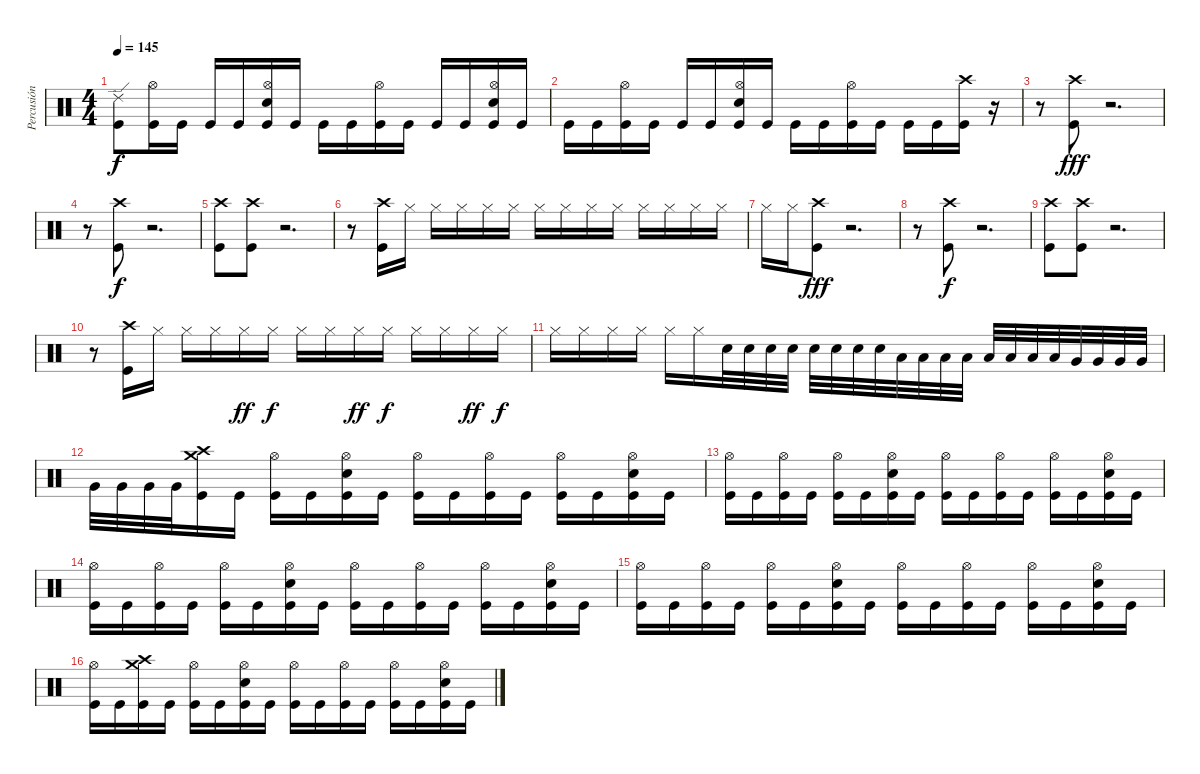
\track ("Percusión" "Percusión") {instrument percussion}
\staff {score}
\articulation defaults
\ts (4 4)
\tempo 145
\clef neutral
\ks c
("Ride (edge) 2" "Kick (hit)").8{dy f} ("Hi-Hat (open)" "Kick (hit)").16 "Kick (hit)".16 "Kick (hit)".16 "Kick (hit)".16 ("Hi-Hat (open)" "Snare (hit) 2" "Kick (hit)").16 "Kick (hit)".16 "Kick (hit)".16 "Kick (hit)".16 ("Hi-Hat (open)" "Kick (hit)").16 "Kick (hit)".16 "Kick (hit)".16 "Kick (hit)".16 ("Hi-Hat (open)" "Snare (hit) 2" "Kick (hit)").16 "Kick (hit)".16 |
"Kick (hit)".16 "Kick (hit)".16 ("Hi-Hat (open)" "Kick (hit)").16 "Kick (hit)".16 "Kick (hit)".16 "Kick (hit)".16 ("Hi-Hat (open)" "Snare (hit) 2" "Kick (hit)").16 "Kick (hit)".16 "Kick (hit)".16 "Kick (hit)".16 ("Hi-Hat (open)" "Kick (hit)").16 "Kick (hit)".16 "Kick (hit)".16 "Kick (hit)".16 ("Crash high (hit)" "Kick (hit)").16 r.16 |
r.8 ("Crash high (hit)" "Kick (hit)").8{dy fff} r.2{d} |
r.8 ("Crash high (hit)" "Kick (hit)").8{dy f} r.2{d} |
("Crash high (hit)" "Kick (hit)").8 ("Crash high (hit)" "Kick (hit)").8 r.2{d} |
r.8 ("Crash high (hit)" "Kick (hit)").16 "Hi-Hat (closed)".16 "Hi-Hat (closed)".16 "Hi-Hat (closed)".16 "Hi-Hat (closed)".16 "Hi-Hat (closed)".16 "Hi-Hat (closed)".16 "Hi-Hat (closed)".16 "Hi-Hat (closed)".16 "Hi-Hat (closed)".16 "Hi-Hat (closed)".16 "Hi-Hat (closed)".16 "Hi-Hat (closed)".16 "Hi-Hat (closed)".16 |
"Hi-Hat (closed)".16 "Hi-Hat (closed)".16 ("Crash high (hit)" "Kick (hit)").8{dy fff} r.2{d} |
r.8 ("Crash high (hit)" "Kick (hit)").8{dy f} r.2{d} |
("Crash high (hit)" "Kick (hit)").8 ("Crash high (hit)" "Kick (hit)").8 r.2{d} |
r.8 ("Crash high (hit)" "Kick (hit)").16 "Hi-Hat (closed)".16 "Hi-Hat (closed)".16 "Hi-Hat (closed)".16 "Hi-Hat (closed)".16{dy ff} "Hi-Hat (closed)".16{dy f} "Hi-Hat (closed)".16 "Hi-Hat (closed)".16 "Hi-Hat (closed)".16{dy ff} "Hi-Hat (closed)".16{dy f} "Hi-Hat (closed)".16 "Hi-Hat (closed)".16 "Hi-Hat (closed)".16{dy ff} "Hi-Hat (closed)".16{dy f} |
"Hi-Hat (closed)".16 "Hi-Hat (closed)".16 "Hi-Hat (closed)".16 "Hi-Hat (closed)".16 "Hi-Hat (closed)".16 "Hi-Hat (closed)".16 "Snare (hit) 2".32 "Snare (hit) 2".32 "Snare (hit) 2".32 "Snare (hit) 2".32 "Snare (hit) 2".32 "Snare (hit) 2".32 "Snare (hit) 2".32 "Snare (hit) 2".32 "Low Tom (hit)".32 "Low Tom (hit)".32 "Low Tom (hit)".32 "Low Tom (hit)".32 "Low Tom (hit)".32 "Low Tom (hit)".32 "Low Tom (hit)".32 "Low Tom (hit)".32 "Very Low Tom (hit)".32 "Very Low Tom (hit)".32 "Very Low Tom (hit)".32 "Very Low Tom (hit)".32 |
"Very Low Tom (hit)".32 "Very Low Tom (hit)".32 "Very Low Tom (hit)".32 "Very Low Tom (hit)".32 ("Crash medium (hit)" "Crash high (hit)" "Kick (hit)").16 "Kick (hit)".16 ("Hi-Hat (open)" "Kick (hit)").16 "Kick (hit)".16 ("Hi-Hat (open)" "Snare (hit) 2" "Kick (hit)").16 "Kick (hit)".16 ("Hi-Hat (open)" "Kick (hit)").16 "Kick (hit)".16 ("Hi-Hat (open)" "Kick (hit)").16 "Kick (hit)".16 ("Hi-Hat (open)" "Kick (hit)").16 "Kick (hit)".16 ("Hi-Hat (open)" "Snare (hit) 2" "Kick (hit)").16 "Kick (hit)".16 |
("Hi-Hat (open)" "Kick (hit)").16 "Kick (hit)".16 ("Hi-Hat (open)" "Kick (hit)").16 "Kick (hit)".16 ("Hi-Hat (open)" "Kick (hit)").16 "Kick (hit)".16 ("Hi-Hat (open)" "Snare (hit) 2" "Kick (hit)").16 "Kick (hit)".16 ("Hi-Hat (open)" "Kick (hit)").16 "Kick (hit)".16 ("Hi-Hat (open)" "Kick (hit)").16 "Kick (hit)".16 ("Hi-Hat (open)" "Kick (hit)").16 "Kick (hit)".16 ("Hi-Hat (open)" "Snare (hit) 2" "Kick (hit)").16 "Kick (hit)".16 |
("Hi-Hat (open)" "Kick (hit)").16 "Kick (hit)".16 ("Hi-Hat (open)" "Kick (hit)").16 "Kick (hit)".16 ("Hi-Hat (open)" "Kick (hit)").16 "Kick (hit)".16 ("Hi-Hat (open)" "Snare (hit) 2" "Kick (hit)").16 "Kick (hit)".16 ("Hi-Hat (open)" "Kick (hit)").16 "Kick (hit)".16 ("Hi-Hat (open)" "Kick (hit)").16 "Kick (hit)".16 ("Hi-Hat (open)" "Kick (hit)").16 "Kick (hit)".16 ("Hi-Hat (open)" "Snare (hit) 2" "Kick (hit)").16 "Kick (hit)".16 |
("Hi-Hat (open)" "Kick (hit)").16 "Kick (hit)".16 ("Hi-Hat (open)" "Kick (hit)").16 "Kick (hit)".16 ("Hi-Hat (open)" "Kick (hit)").16 "Kick (hit)".16 ("Hi-Hat (open)" "Snare (hit) 2" "Kick (hit)").16 "Kick (hit)".16 ("Hi-Hat (open)" "Kick (hit)").16 "Kick (hit)".16 ("Hi-Hat (open)" "Kick (hit)").16 "Kick (hit)".16 ("Hi-Hat (open)" "Kick (hit)").16 "Kick (hit)".16 ("Hi-Hat (open)" "Snare (hit) 2" "Kick (hit)").16 "Kick (hit)".16 |
("Hi-Hat (open)" "Kick (hit)").16 "Kick (hit)".16 ("Crash medium (hit)" "Crash high (hit)" "Kick (hit)").16 "Kick (hit)".16 ("Hi-Hat (open)" "Kick (hit)").16 "Kick (hit)".16 ("Hi-Hat (open)" "Snare (hit) 2" "Kick (hit)").16 "Kick (hit)".16 ("Hi-Hat (open)" "Kick (hit)").16 "Kick (hit)".16 ("Hi-Hat (open)" "Kick (hit)").16 "Kick (hit)".16 ("Hi-Hat (open)" "Kick (hit)").16 "Kick (hit)".16 ("Hi-Hat (open)" "Snare (hit) 2" "Kick (hit)").16 "Kick (hit)".16
